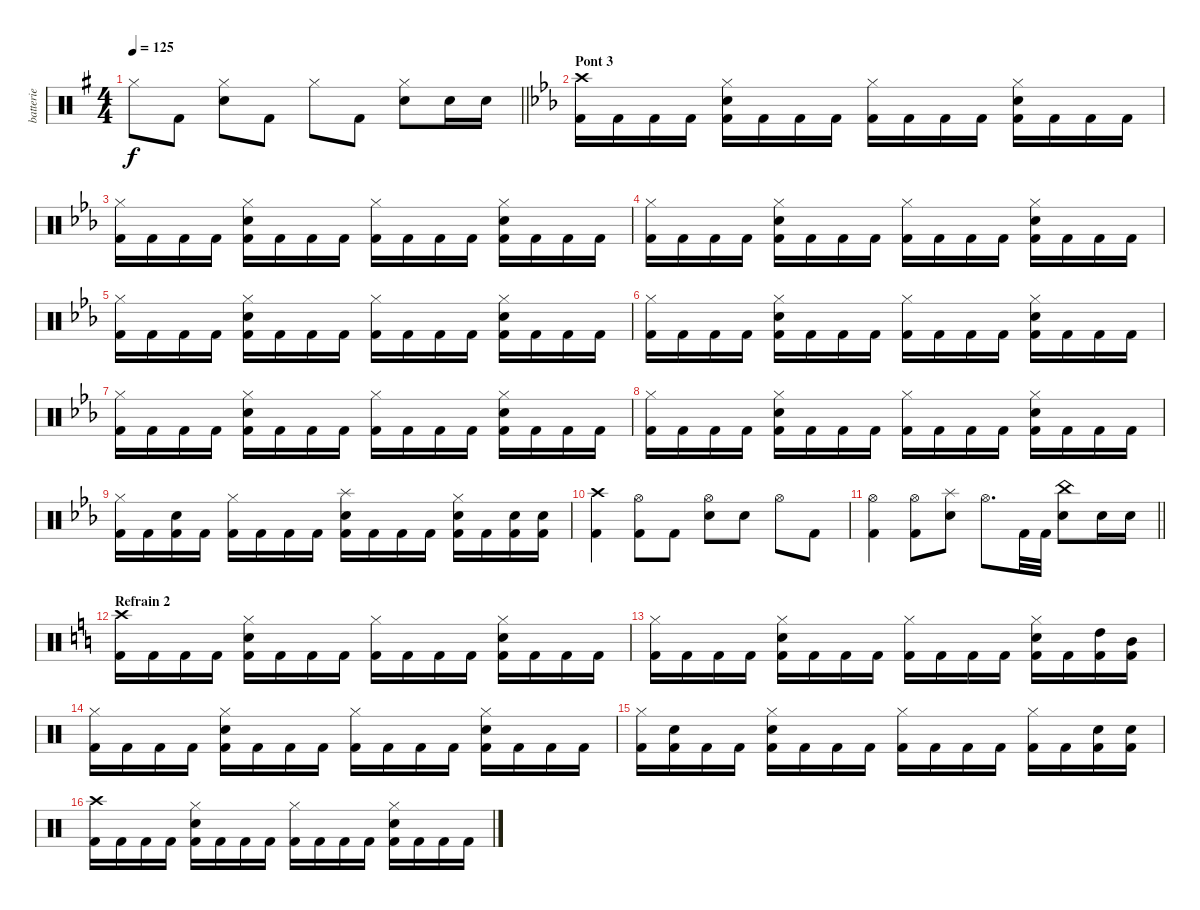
\track ("batterie" "batterie") {instrument percussion}
\staff {score}
\articulation defaults
\ts (4 4)
\tempo 125
\clef neutral
\barLineRight lightlight
\ks eminor "Hi-Hat (closed)".8{dy f} "Kick (hit) 2".8
("Hi-Hat (closed)" "Electric Snare (hit)").8 "Kick (hit) 2".8 "Hi-Hat (closed)".8 "Kick (hit) 2".8 ("Hi-Hat (closed)" "Electric Snare (hit)").8 "Electric Snare (hit)".16 "Electric Snare (hit)".16 |
\section ("" "Pont 3")
\ks cminor
("Crash high (hit)" "Kick (hit) 2").16 "Kick (hit) 2".16 "Kick (hit) 2".16 "Kick (hit) 2".16 ("Hi-Hat (closed)" "Electric Snare (hit)" "Kick (hit) 2").16 "Kick (hit) 2".16 "Kick (hit) 2".16 "Kick (hit) 2".16 ("Hi-Hat (closed)" "Kick (hit) 2").16 "Kick (hit) 2".16 "Kick (hit) 2".16 "Kick (hit) 2".16 ("Hi-Hat (closed)" "Electric Snare (hit)" "Kick (hit) 2").16 "Kick (hit) 2".16 "Kick (hit) 2".16 "Kick (hit) 2".16 |
("Hi-Hat (closed)" "Kick (hit) 2").16 "Kick (hit) 2".16 "Kick (hit) 2".16 "Kick (hit) 2".16 ("Hi-Hat (closed)" "Electric Snare (hit)" "Kick (hit) 2").16 "Kick (hit) 2".16 "Kick (hit) 2".16 "Kick (hit) 2".16 ("Hi-Hat (closed)" "Kick (hit) 2").16 "Kick (hit) 2".16 "Kick (hit) 2".16 "Kick (hit) 2".16 ("Hi-Hat (closed)" "Electric Snare (hit)" "Kick (hit) 2").16 "Kick (hit) 2".16 "Kick (hit) 2".16 "Kick (hit) 2".16 |
("Hi-Hat (closed)" "Kick (hit) 2").16 "Kick (hit) 2".16 "Kick (hit) 2".16 "Kick (hit) 2".16 ("Hi-Hat (closed)" "Electric Snare (hit)" "Kick (hit) 2").16 "Kick (hit) 2".16 "Kick (hit) 2".16 "Kick (hit) 2".16 ("Hi-Hat (closed)" "Kick (hit) 2").16 "Kick (hit) 2".16 "Kick (hit) 2".16 "Kick (hit) 2".16 ("Hi-Hat (closed)" "Electric Snare (hit)" "Kick (hit) 2").16 "Kick (hit) 2".16 "Kick (hit) 2".16 "Kick (hit) 2".16 |
("Hi-Hat (closed)" "Kick (hit) 2").16 "Kick (hit) 2".16 "Kick (hit) 2".16 "Kick (hit) 2".16 ("Hi-Hat (closed)" "Electric Snare (hit)" "Kick (hit) 2").16 "Kick (hit) 2".16 "Kick (hit) 2".16 "Kick (hit) 2".16 ("Hi-Hat (closed)" "Kick (hit) 2").16 "Kick (hit) 2".16 "Kick (hit) 2".16 "Kick (hit) 2".16 ("Hi-Hat (closed)" "Electric Snare (hit)" "Kick (hit) 2").16 "Kick (hit) 2".16 "Kick (hit) 2".16 "Kick (hit) 2".16 |
("Hi-Hat (closed)" "Kick (hit) 2").16 "Kick (hit) 2".16 "Kick (hit) 2".16 "Kick (hit) 2".16 ("Hi-Hat (closed)" "Electric Snare (hit)" "Kick (hit) 2").16 "Kick (hit) 2".16 "Kick (hit) 2".16 "Kick (hit) 2".16 ("Hi-Hat (closed)" "Kick (hit) 2").16 "Kick (hit) 2".16 "Kick (hit) 2".16 "Kick (hit) 2".16 ("Hi-Hat (closed)" "Electric Snare (hit)" "Kick (hit) 2").16 "Kick (hit) 2".16 "Kick (hit) 2".16 "Kick (hit) 2".16 |
("Hi-Hat (closed)" "Kick (hit) 2").16 "Kick (hit) 2".16 "Kick (hit) 2".16 "Kick (hit) 2".16 ("Hi-Hat (closed)" "Electric Snare (hit)" "Kick (hit) 2").16 "Kick (hit) 2".16 "Kick (hit) 2".16 "Kick (hit) 2".16 ("Hi-Hat (closed)" "Kick (hit) 2").16 "Kick (hit) 2".16 "Kick (hit) 2".16 "Kick (hit) 2".16 ("Hi-Hat (closed)" "Electric Snare (hit)" "Kick (hit) 2").16 "Kick (hit) 2".16 "Kick (hit) 2".16 "Kick (hit) 2".16 |
("Hi-Hat (closed)" "Kick (hit) 2").16 "Kick (hit) 2".16 "Kick (hit) 2".16 "Kick (hit) 2".16 ("Hi-Hat (closed)" "Electric Snare (hit)" "Kick (hit) 2").16 "Kick (hit) 2".16 "Kick (hit) 2".16 "Kick (hit) 2".16 ("Hi-Hat (closed)" "Kick (hit) 2").16 "Kick (hit) 2".16 "Kick (hit) 2".16 "Kick (hit) 2".16 ("Hi-Hat (closed)" "Electric Snare (hit)" "Kick (hit) 2").16 "Kick (hit) 2".16 "Kick (hit) 2".16 "Kick (hit) 2".16 |
("Hi-Hat (closed)" "Kick (hit) 2").16 "Kick (hit) 2".16 ("Electric Snare (hit)" "Kick (hit) 2").16 "Kick (hit) 2".16 ("Hi-Hat (closed)" "Kick (hit) 2").16 "Kick (hit) 2".16 "Kick (hit) 2".16 "Kick (hit) 2".16 ("Splash (hit)" "Electric Snare (hit)" "Kick (hit) 2").16 "Kick (hit) 2".16 "Kick (hit) 2".16 "Kick (hit) 2".16 ("Hi-Hat (closed)" "Electric Snare (hit)" "Kick (hit) 2").16 "Kick (hit) 2".16 ("Electric Snare (hit)" "Kick (hit) 2").16 ("Electric Snare (hit)" "Kick (hit) 2").16 |
("Crash high (hit)" "Kick (hit) 2").4 ("Hi-Hat (open)" "Kick (hit) 2").8 "Kick (hit) 2".8 ("Hi-Hat (open)" "Electric Snare (hit)").8 "Electric Snare (hit)".8 "Hi-Hat (open)".8 "Kick (hit) 2".8 |
\barLineRight lightlight
("Hi-Hat (open)" "Kick (hit) 2").4 ("Hi-Hat (open)" "Kick (hit) 2").8 ("Splash (hit)" "Electric Snare (hit)").8 "Hi-Hat (open)".8{d} "Kick (hit) 2".32 "Kick (hit) 2".32 ("China (hit)" "Electric Snare (hit)").8 "Electric Snare (hit)".16 "Electric Snare (hit)".16 |
\section ("" "Refrain 2")
\ks aminor
("Crash high (hit)" "Kick (hit) 2").16 "Kick (hit) 2".16 "Kick (hit) 2".16 "Kick (hit) 2".16 ("Hi-Hat (closed)" "Electric Snare (hit)" "Kick (hit) 2").16 "Kick (hit) 2".16 "Kick (hit) 2".16 "Kick (hit) 2".16 ("Hi-Hat (closed)" "Kick (hit) 2").16 "Kick (hit) 2".16 "Kick (hit) 2".16 "Kick (hit) 2".16 ("Hi-Hat (closed)" "Electric Snare (hit)" "Kick (hit) 2").16 "Kick (hit) 2".16 "Kick (hit) 2".16 "Kick (hit) 2".16 |
("Hi-Hat (closed)" "Kick (hit) 2").16 "Kick (hit) 2".16 "Kick (hit) 2".16 "Kick (hit) 2".16 ("Hi-Hat (closed)" "Electric Snare (hit)" "Kick (hit) 2").16 "Kick (hit) 2".16 "Kick (hit) 2".16 "Kick (hit) 2".16 ("Hi-Hat (closed)" "Kick (hit) 2").16 "Kick (hit) 2".16 "Kick (hit) 2".16 "Kick (hit) 2".16 ("Hi-Hat (closed)" "Electric Snare (hit)" "Kick (hit) 2").16 "Kick (hit) 2".16 ("High Tom (hit)" "Kick (hit) 2").16 ("Mid Tom (hit)" "Kick (hit) 2").16 |
("Hi-Hat (closed)" "Kick (hit) 2").16 "Kick (hit) 2".16 "Kick (hit) 2".16 "Kick (hit) 2".16 ("Hi-Hat (closed)" "Electric Snare (hit)" "Kick (hit) 2").16 "Kick (hit) 2".16 "Kick (hit) 2".16 "Kick (hit) 2".16 ("Hi-Hat (closed)" "Kick (hit) 2").16 "Kick (hit) 2".16 "Kick (hit) 2".16 "Kick (hit) 2".16 ("Hi-Hat (closed)" "Electric Snare (hit)" "Kick (hit) 2").16 "Kick (hit) 2".16 "Kick (hit) 2".16 "Kick (hit) 2".16 |
("Hi-Hat (closed)" "Kick (hit) 2").16 ("Electric Snare (hit)" "Kick (hit) 2").16 "Kick (hit) 2".16 "Kick (hit) 2".16 ("Hi-Hat (closed)" "Electric Snare (hit)" "Kick (hit) 2").16 "Kick (hit) 2".16 "Kick (hit) 2".16 "Kick (hit) 2".16 ("Hi-Hat (closed)" "Kick (hit) 2").16 "Kick (hit) 2".16 "Kick (hit) 2".16 "Kick (hit) 2".16 ("Hi-Hat (closed)" "Kick (hit) 2").16 "Kick (hit) 2".16 ("Electric Snare (hit)" "Kick (hit) 2").16 ("Electric Snare (hit)" "Kick (hit) 2").16 |
("Crash high (hit)" "Kick (hit) 2").16 "Kick (hit) 2".16 "Kick (hit) 2".16 "Kick (hit) 2".16 ("Hi-Hat (closed)" "Electric Snare (hit)" "Kick (hit) 2").16 "Kick (hit) 2".16 "Kick (hit) 2".16 "Kick (hit) 2".16 ("Hi-Hat (closed)" "Kick (hit) 2").16 "Kick (hit) 2".16 "Kick (hit) 2".16 "Kick (hit) 2".16 ("Hi-Hat (closed)" "Electric Snare (hit)" "Kick (hit) 2").16 "Kick (hit) 2".16 "Kick (hit) 2".16 "Kick (hit) 2".16
